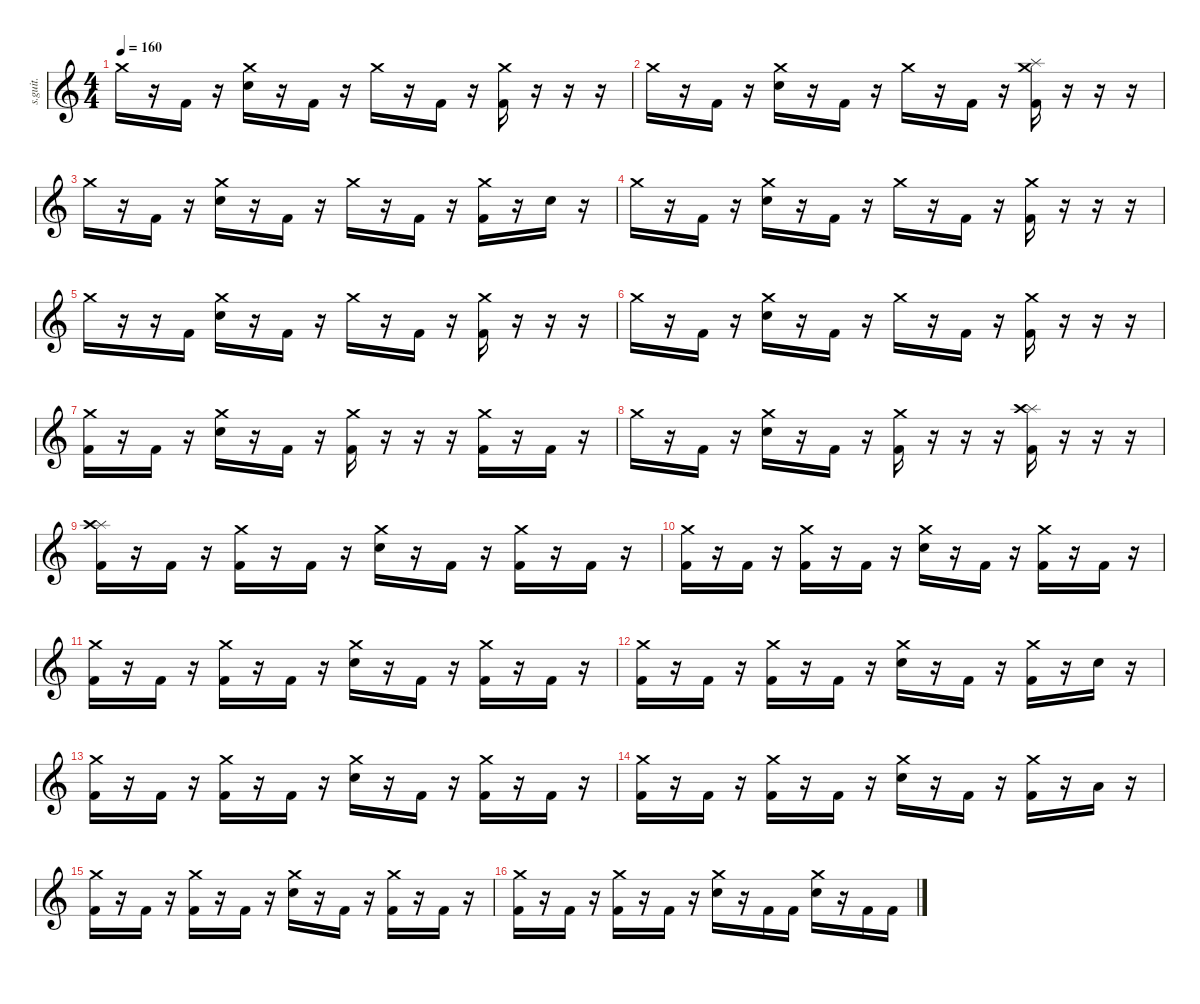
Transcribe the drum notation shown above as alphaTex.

\defaultSystemsLayout 4
\hideDynamics
\bracketExtendMode nobrackets
\track ("Drumkit" "s.guit.") {instrument percussion}
\staff {score}
\articulation defaults
\ts (4 4)
\tempo 160
\clef g2
\ks c "Crash medium (hit)".16{lyrics (0 "") lyrics (1 "") lyrics (2 "") lyrics (3 "") lyrics (4 "") dy f}
r.16 "Kick (hit) 2".16{lyrics (0 "") lyrics (1 "") lyrics (2 "") lyrics (3 "") lyrics (4 "")} r.16 ("Crash medium (hit)" "Electric Snare (hit)").16{lyrics (0 "") lyrics (1 "") lyrics (2 "") lyrics (3 "") lyrics (4 "")} r.16 "Kick (hit) 2".16{lyrics (0 "") lyrics (1 "") lyrics (2 "") lyrics (3 "") lyrics (4 "")} r.16 "Crash medium (hit)".16{lyrics (0 "") lyrics (1 "") lyrics (2 "") lyrics (3 "") lyrics (4 "")} r.16 "Kick (hit) 2".16{lyrics (0 "") lyrics (1 "") lyrics (2 "") lyrics (3 "") lyrics (4 "")} r.16 ("Crash medium (hit)" "Kick (hit) 2").16{lyrics (0 "") lyrics (1 "") lyrics (2 "") lyrics (3 "") lyrics (4 "")} r.16 r.16 r.16 |
"Crash medium (hit)".16{lyrics (0 "") lyrics (1 "") lyrics (2 "") lyrics (3 "") lyrics (4 "")} r.16 "Kick (hit) 2".16{lyrics (0 "") lyrics (1 "") lyrics (2 "") lyrics (3 "") lyrics (4 "")} r.16 ("Crash medium (hit)" "Electric Snare (hit)").16{lyrics (0 "") lyrics (1 "") lyrics (2 "") lyrics (3 "") lyrics (4 "")} r.16 "Kick (hit) 2".16{lyrics (0 "") lyrics (1 "") lyrics (2 "") lyrics (3 "") lyrics (4 "")} r.16 "Crash medium (hit)".16{lyrics (0 "") lyrics (1 "") lyrics (2 "") lyrics (3 "") lyrics (4 "")} r.16 "Kick (hit) 2".16{lyrics (0 "") lyrics (1 "") lyrics (2 "") lyrics (3 "") lyrics (4 "")} r.16 ("Splash (hit)" "Crash medium (hit)" "Kick (hit) 2").16{lyrics (0 "") lyrics (1 "") lyrics (2 "") lyrics (3 "") lyrics (4 "")} r.16 r.16 r.16 |
"Crash medium (hit)".16{lyrics (0 "") lyrics (1 "") lyrics (2 "") lyrics (3 "") lyrics (4 "")} r.16 "Kick (hit) 2".16{lyrics (0 "") lyrics (1 "") lyrics (2 "") lyrics (3 "") lyrics (4 "")} r.16 ("Crash medium (hit)" "Electric Snare (hit)").16{lyrics (0 "") lyrics (1 "") lyrics (2 "") lyrics (3 "") lyrics (4 "")} r.16 "Kick (hit) 2".16{lyrics (0 "") lyrics (1 "") lyrics (2 "") lyrics (3 "") lyrics (4 "")} r.16 "Crash medium (hit)".16{lyrics (0 "") lyrics (1 "") lyrics (2 "") lyrics (3 "") lyrics (4 "")} r.16 "Kick (hit) 2".16{lyrics (0 "") lyrics (1 "") lyrics (2 "") lyrics (3 "") lyrics (4 "")} r.16 ("Crash medium (hit)" "Kick (hit) 2").16{lyrics (0 "") lyrics (1 "") lyrics (2 "") lyrics (3 "") lyrics (4 "")} r.16 "Electric Snare (hit)".16{lyrics (0 "") lyrics (1 "") lyrics (2 "") lyrics (3 "") lyrics (4 "")} r.16 |
"Crash medium (hit)".16{lyrics (0 "") lyrics (1 "") lyrics (2 "") lyrics (3 "") lyrics (4 "")} r.16 "Kick (hit) 2".16{lyrics (0 "") lyrics (1 "") lyrics (2 "") lyrics (3 "") lyrics (4 "")} r.16 ("Crash medium (hit)" "Electric Snare (hit)").16{lyrics (0 "") lyrics (1 "") lyrics (2 "") lyrics (3 "") lyrics (4 "")} r.16 "Kick (hit) 2".16{lyrics (0 "") lyrics (1 "") lyrics (2 "") lyrics (3 "") lyrics (4 "")} r.16 "Crash medium (hit)".16{lyrics (0 "") lyrics (1 "") lyrics (2 "") lyrics (3 "") lyrics (4 "")} r.16 "Kick (hit) 2".16{lyrics (0 "") lyrics (1 "") lyrics (2 "") lyrics (3 "") lyrics (4 "")} r.16 ("Crash medium (hit)" "Kick (hit) 2").16{lyrics (0 "") lyrics (1 "") lyrics (2 "") lyrics (3 "") lyrics (4 "")} r.16 r.16 r.16 |
"Crash medium (hit)".16{lyrics (0 "") lyrics (1 "") lyrics (2 "") lyrics (3 "") lyrics (4 "")} r.16 r.16 "Kick (hit) 2".16{lyrics (0 "") lyrics (1 "") lyrics (2 "") lyrics (3 "") lyrics (4 "")} ("Crash medium (hit)" "Electric Snare (hit)").16{lyrics (0 "") lyrics (1 "") lyrics (2 "") lyrics (3 "") lyrics (4 "")} r.16 "Kick (hit) 2".16{lyrics (0 "") lyrics (1 "") lyrics (2 "") lyrics (3 "") lyrics (4 "")} r.16 "Crash medium (hit)".16{lyrics (0 "") lyrics (1 "") lyrics (2 "") lyrics (3 "") lyrics (4 "")} r.16 "Kick (hit) 2".16{lyrics (0 "") lyrics (1 "") lyrics (2 "") lyrics (3 "") lyrics (4 "")} r.16 ("Crash medium (hit)" "Kick (hit) 2").16{lyrics (0 "") lyrics (1 "") lyrics (2 "") lyrics (3 "") lyrics (4 "")} r.16 r.16 r.16 |
"Crash medium (hit)".16{lyrics (0 "") lyrics (1 "") lyrics (2 "") lyrics (3 "") lyrics (4 "")} r.16 "Kick (hit) 2".16{lyrics (0 "") lyrics (1 "") lyrics (2 "") lyrics (3 "") lyrics (4 "")} r.16 ("Crash medium (hit)" "Electric Snare (hit)").16{lyrics (0 "") lyrics (1 "") lyrics (2 "") lyrics (3 "") lyrics (4 "")} r.16 "Kick (hit) 2".16{lyrics (0 "") lyrics (1 "") lyrics (2 "") lyrics (3 "") lyrics (4 "")} r.16 "Crash medium (hit)".16{lyrics (0 "") lyrics (1 "") lyrics (2 "") lyrics (3 "") lyrics (4 "")} r.16 "Kick (hit) 2".16{lyrics (0 "") lyrics (1 "") lyrics (2 "") lyrics (3 "") lyrics (4 "")} r.16 ("Crash medium (hit)" "Kick (hit) 2").16{lyrics (0 "") lyrics (1 "") lyrics (2 "") lyrics (3 "") lyrics (4 "")} r.16 r.16 r.16 |
("Crash medium (hit)" "Kick (hit) 2").16{lyrics (0 "") lyrics (1 "") lyrics (2 "") lyrics (3 "") lyrics (4 "")} r.16 "Kick (hit) 2".16{lyrics (0 "") lyrics (1 "") lyrics (2 "") lyrics (3 "") lyrics (4 "")} r.16 ("Crash medium (hit)" "Electric Snare (hit)").16{lyrics (0 "") lyrics (1 "") lyrics (2 "") lyrics (3 "") lyrics (4 "")} r.16 "Kick (hit) 2".16{lyrics (0 "") lyrics (1 "") lyrics (2 "") lyrics (3 "") lyrics (4 "")} r.16 ("Crash medium (hit)" "Kick (hit) 2").16{lyrics (0 "") lyrics (1 "") lyrics (2 "") lyrics (3 "") lyrics (4 "")} r.16 r.16 r.16 ("Crash medium (hit)" "Kick (hit) 2").16{lyrics (0 "") lyrics (1 "") lyrics (2 "") lyrics (3 "") lyrics (4 "")} r.16 "Kick (hit) 2".16{lyrics (0 "") lyrics (1 "") lyrics (2 "") lyrics (3 "") lyrics (4 "")} r.16 |
"Crash medium (hit)".16{lyrics (0 "") lyrics (1 "") lyrics (2 "") lyrics (3 "") lyrics (4 "")} r.16 "Kick (hit) 2".16{lyrics (0 "") lyrics (1 "") lyrics (2 "") lyrics (3 "") lyrics (4 "")} r.16 ("Crash medium (hit)" "Electric Snare (hit)").16{lyrics (0 "") lyrics (1 "") lyrics (2 "") lyrics (3 "") lyrics (4 "")} r.16 "Kick (hit) 2".16{lyrics (0 "") lyrics (1 "") lyrics (2 "") lyrics (3 "") lyrics (4 "")} r.16 ("Crash medium (hit)" "Kick (hit) 2").16{lyrics (0 "") lyrics (1 "") lyrics (2 "") lyrics (3 "") lyrics (4 "")} r.16 r.16 r.16 ("Splash (hit)" "Crash high (hit)" "Kick (hit) 2").16{lyrics (0 "") lyrics (1 "") lyrics (2 "") lyrics (3 "") lyrics (4 "")} r.16 r.16 r.16 |
("Splash (hit)" "Crash high (hit)" "Kick (hit) 2").16{lyrics (0 "") lyrics (1 "") lyrics (2 "") lyrics (3 "") lyrics (4 "")} r.16 "Kick (hit) 2".16{lyrics (0 "") lyrics (1 "") lyrics (2 "") lyrics (3 "") lyrics (4 "")} r.16 ("Crash medium (hit)" "Kick (hit) 2").16{lyrics (0 "") lyrics (1 "") lyrics (2 "") lyrics (3 "") lyrics (4 "")} r.16 "Kick (hit) 2".16{lyrics (0 "") lyrics (1 "") lyrics (2 "") lyrics (3 "") lyrics (4 "")} r.16 ("Crash medium (hit)" "Electric Snare (hit)").16{lyrics (0 "") lyrics (1 "") lyrics (2 "") lyrics (3 "") lyrics (4 "")} r.16 "Kick (hit) 2".16{lyrics (0 "") lyrics (1 "") lyrics (2 "") lyrics (3 "") lyrics (4 "")} r.16 ("Crash medium (hit)" "Kick (hit) 2").16{lyrics (0 "") lyrics (1 "") lyrics (2 "") lyrics (3 "") lyrics (4 "")} r.16 "Kick (hit) 2".16{lyrics (0 "") lyrics (1 "") lyrics (2 "") lyrics (3 "") lyrics (4 "")} r.16 |
("Crash medium (hit)" "Kick (hit) 2").16{lyrics (0 "") lyrics (1 "") lyrics (2 "") lyrics (3 "") lyrics (4 "")} r.16 "Kick (hit) 2".16{lyrics (0 "") lyrics (1 "") lyrics (2 "") lyrics (3 "") lyrics (4 "")} r.16 ("Crash medium (hit)" "Kick (hit) 2").16{lyrics (0 "") lyrics (1 "") lyrics (2 "") lyrics (3 "") lyrics (4 "")} r.16 "Kick (hit) 2".16{lyrics (0 "") lyrics (1 "") lyrics (2 "") lyrics (3 "") lyrics (4 "")} r.16 ("Crash medium (hit)" "Electric Snare (hit)").16{lyrics (0 "") lyrics (1 "") lyrics (2 "") lyrics (3 "") lyrics (4 "")} r.16 "Kick (hit) 2".16{lyrics (0 "") lyrics (1 "") lyrics (2 "") lyrics (3 "") lyrics (4 "")} r.16 ("Crash medium (hit)" "Kick (hit) 2").16{lyrics (0 "") lyrics (1 "") lyrics (2 "") lyrics (3 "") lyrics (4 "")} r.16 "Kick (hit) 2".16{lyrics (0 "") lyrics (1 "") lyrics (2 "") lyrics (3 "") lyrics (4 "")} r.16 |
("Crash medium (hit)" "Kick (hit) 2").16{lyrics (0 "") lyrics (1 "") lyrics (2 "") lyrics (3 "") lyrics (4 "")} r.16 "Kick (hit) 2".16{lyrics (0 "") lyrics (1 "") lyrics (2 "") lyrics (3 "") lyrics (4 "")} r.16 ("Crash medium (hit)" "Kick (hit) 2").16{lyrics (0 "") lyrics (1 "") lyrics (2 "") lyrics (3 "") lyrics (4 "")} r.16 "Kick (hit) 2".16{lyrics (0 "") lyrics (1 "") lyrics (2 "") lyrics (3 "") lyrics (4 "")} r.16 ("Crash medium (hit)" "Electric Snare (hit)").16{lyrics (0 "") lyrics (1 "") lyrics (2 "") lyrics (3 "") lyrics (4 "")} r.16 "Kick (hit) 2".16{lyrics (0 "") lyrics (1 "") lyrics (2 "") lyrics (3 "") lyrics (4 "")} r.16 ("Crash medium (hit)" "Kick (hit) 2").16{lyrics (0 "") lyrics (1 "") lyrics (2 "") lyrics (3 "") lyrics (4 "")} r.16 "Kick (hit) 2".16{lyrics (0 "") lyrics (1 "") lyrics (2 "") lyrics (3 "") lyrics (4 "")} r.16 |
("Crash medium (hit)" "Kick (hit) 2").16{lyrics (0 "") lyrics (1 "") lyrics (2 "") lyrics (3 "") lyrics (4 "")} r.16 "Kick (hit) 2".16{lyrics (0 "") lyrics (1 "") lyrics (2 "") lyrics (3 "") lyrics (4 "")} r.16 ("Crash medium (hit)" "Kick (hit) 2").16{lyrics (0 "") lyrics (1 "") lyrics (2 "") lyrics (3 "") lyrics (4 "")} r.16 "Kick (hit) 2".16{lyrics (0 "") lyrics (1 "") lyrics (2 "") lyrics (3 "") lyrics (4 "")} r.16 ("Crash medium (hit)" "Electric Snare (hit)").16{lyrics (0 "") lyrics (1 "") lyrics (2 "") lyrics (3 "") lyrics (4 "")} r.16 "Kick (hit) 2".16{lyrics (0 "") lyrics (1 "") lyrics (2 "") lyrics (3 "") lyrics (4 "")} r.16 ("Crash medium (hit)" "Kick (hit) 2").16{lyrics (0 "") lyrics (1 "") lyrics (2 "") lyrics (3 "") lyrics (4 "")} r.16 "Electric Snare (hit)".16{lyrics (0 "") lyrics (1 "") lyrics (2 "") lyrics (3 "") lyrics (4 "")} r.16 |
("Crash medium (hit)" "Kick (hit) 2").16{lyrics (0 "") lyrics (1 "") lyrics (2 "") lyrics (3 "") lyrics (4 "")} r.16 "Kick (hit) 2".16{lyrics (0 "") lyrics (1 "") lyrics (2 "") lyrics (3 "") lyrics (4 "")} r.16 ("Crash medium (hit)" "Kick (hit) 2").16{lyrics (0 "") lyrics (1 "") lyrics (2 "") lyrics (3 "") lyrics (4 "")} r.16 "Kick (hit) 2".16{lyrics (0 "") lyrics (1 "") lyrics (2 "") lyrics (3 "") lyrics (4 "")} r.16 ("Crash medium (hit)" "Electric Snare (hit)").16{lyrics (0 "") lyrics (1 "") lyrics (2 "") lyrics (3 "") lyrics (4 "")} r.16 "Kick (hit) 2".16{lyrics (0 "") lyrics (1 "") lyrics (2 "") lyrics (3 "") lyrics (4 "")} r.16 ("Crash medium (hit)" "Kick (hit) 2").16{lyrics (0 "") lyrics (1 "") lyrics (2 "") lyrics (3 "") lyrics (4 "")} r.16 "Kick (hit) 2".16{lyrics (0 "") lyrics (1 "") lyrics (2 "") lyrics (3 "") lyrics (4 "")} r.16 |
("Crash medium (hit)" "Kick (hit) 2").16{lyrics (0 "") lyrics (1 "") lyrics (2 "") lyrics (3 "") lyrics (4 "")} r.16 "Kick (hit) 2".16{lyrics (0 "") lyrics (1 "") lyrics (2 "") lyrics (3 "") lyrics (4 "")} r.16 ("Crash medium (hit)" "Kick (hit) 2").16{lyrics (0 "") lyrics (1 "") lyrics (2 "") lyrics (3 "") lyrics (4 "")} r.16 "Kick (hit) 2".16{lyrics (0 "") lyrics (1 "") lyrics (2 "") lyrics (3 "") lyrics (4 "")} r.16 ("Crash medium (hit)" "Electric Snare (hit)").16{lyrics (0 "") lyrics (1 "") lyrics (2 "") lyrics (3 "") lyrics (4 "")} r.16 "Kick (hit) 2".16{lyrics (0 "") lyrics (1 "") lyrics (2 "") lyrics (3 "") lyrics (4 "")} r.16 ("Crash medium (hit)" "Kick (hit) 2").16{lyrics (0 "") lyrics (1 "") lyrics (2 "") lyrics (3 "") lyrics (4 "")} r.16 "Low Floor Tom (hit)".16{lyrics (0 "") lyrics (1 "") lyrics (2 "") lyrics (3 "") lyrics (4 "")} r.16 |
("Crash medium (hit)" "Kick (hit) 2").16{lyrics (0 "") lyrics (1 "") lyrics (2 "") lyrics (3 "") lyrics (4 "")} r.16 "Kick (hit) 2".16{lyrics (0 "") lyrics (1 "") lyrics (2 "") lyrics (3 "") lyrics (4 "")} r.16 ("Crash medium (hit)" "Kick (hit) 2").16{lyrics (0 "") lyrics (1 "") lyrics (2 "") lyrics (3 "") lyrics (4 "")} r.16 "Kick (hit) 2".16{lyrics (0 "") lyrics (1 "") lyrics (2 "") lyrics (3 "") lyrics (4 "")} r.16 ("Crash medium (hit)" "Electric Snare (hit)").16{lyrics (0 "") lyrics (1 "") lyrics (2 "") lyrics (3 "") lyrics (4 "")} r.16 "Kick (hit) 2".16{lyrics (0 "") lyrics (1 "") lyrics (2 "") lyrics (3 "") lyrics (4 "")} r.16 ("Crash medium (hit)" "Kick (hit) 2").16{lyrics (0 "") lyrics (1 "") lyrics (2 "") lyrics (3 "") lyrics (4 "")} r.16 "Kick (hit) 2".16{lyrics (0 "") lyrics (1 "") lyrics (2 "") lyrics (3 "") lyrics (4 "")} r.16 |
("Crash medium (hit)" "Kick (hit) 2").16{lyrics (0 "") lyrics (1 "") lyrics (2 "") lyrics (3 "") lyrics (4 "")} r.16 "Kick (hit) 2".16{lyrics (0 "") lyrics (1 "") lyrics (2 "") lyrics (3 "") lyrics (4 "")} r.16 ("Crash medium (hit)" "Kick (hit) 2").16{lyrics (0 "") lyrics (1 "") lyrics (2 "") lyrics (3 "") lyrics (4 "")} r.16 "Kick (hit) 2".16{lyrics (0 "") lyrics (1 "") lyrics (2 "") lyrics (3 "") lyrics (4 "")} r.16 ("Crash medium (hit)" "Electric Snare (hit)").16{lyrics (0 "") lyrics (1 "") lyrics (2 "") lyrics (3 "") lyrics (4 "")} r.16 "Kick (hit) 2".16{lyrics (0 "") lyrics (1 "") lyrics (2 "") lyrics (3 "") lyrics (4 "")} "Kick (hit) 2".16{lyrics (0 "") lyrics (1 "") lyrics (2 "") lyrics (3 "") lyrics (4 "")} ("Crash medium (hit)" "Electric Snare (hit)").16{lyrics (0 "") lyrics (1 "") lyrics (2 "") lyrics (3 "") lyrics (4 "")} r.16 "Kick (hit) 2".16{lyrics (0 "") lyrics (1 "") lyrics (2 "") lyrics (3 "") lyrics (4 "")} "Kick (hit) 2".16{lyrics (0 "") lyrics (1 "") lyrics (2 "") lyrics (3 "") lyrics (4 "")}
